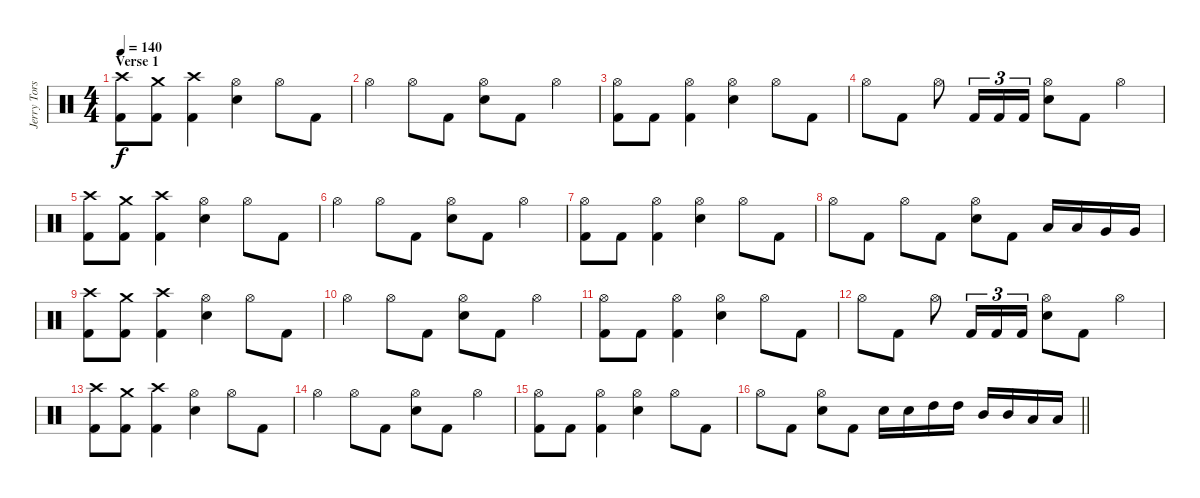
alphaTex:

\track ("Jerry Torstensson" "Jerry Tors") {instrument percussion}
\staff {score}
\articulation defaults
\ts (4 4)
\section ("" "Verse 1")
\tempo 140
\clef neutral
\ks c
("Crash high (hit)" "Kick (hit) 2").8{dy f} ("Crash medium (hit)" "Kick (hit) 2").8 ("Crash high (hit)" "Kick (hit) 2").4 ("Hi-Hat (open)" "Snare (hit) 2").4 "Hi-Hat (open)".8 "Kick (hit) 2".8 |
"Hi-Hat (open)".4 "Hi-Hat (open)".8 "Kick (hit) 2".8 ("Hi-Hat (open)" "Snare (hit) 2").8 "Kick (hit) 2".8 "Hi-Hat (open)".4 |
("Hi-Hat (open)" "Kick (hit) 2").8 "Kick (hit) 2".8 ("Hi-Hat (open)" "Kick (hit) 2").4 ("Hi-Hat (open)" "Snare (hit) 2").4 "Hi-Hat (open)".8 "Kick (hit) 2".8 |
"Hi-Hat (open)".8 "Kick (hit) 2".8 "Hi-Hat (open)".8 "Kick (hit) 2".16{tu (3 2)} "Kick (hit) 2".16{tu (3 2)} "Kick (hit) 2".16{tu (3 2)} ("Hi-Hat (open)" "Snare (hit) 2").8 "Kick (hit) 2".8 "Hi-Hat (open)".4 |
("Crash high (hit)" "Kick (hit) 2").8 ("Crash medium (hit)" "Kick (hit) 2").8 ("Crash high (hit)" "Kick (hit) 2").4 ("Hi-Hat (open)" "Snare (hit) 2").4 "Hi-Hat (open)".8 "Kick (hit) 2".8 |
"Hi-Hat (open)".4 "Hi-Hat (open)".8 "Kick (hit) 2".8 ("Hi-Hat (open)" "Snare (hit) 2").8 "Kick (hit) 2".8 "Hi-Hat (open)".4 |
("Hi-Hat (open)" "Kick (hit) 2").8 "Kick (hit) 2".8 ("Hi-Hat (open)" "Kick (hit) 2").4 ("Hi-Hat (open)" "Snare (hit) 2").4 "Hi-Hat (open)".8 "Kick (hit) 2".8 |
"Hi-Hat (open)".8 "Kick (hit) 2".8 "Hi-Hat (open)".8 "Kick (hit) 2".8 ("Hi-Hat (open)" "Snare (hit) 2").8 "Kick (hit) 2".8 "Low Tom (hit)".16 "Low Tom (hit)".16 "Very Low Tom (hit)".16 "Very Low Tom (hit)".16 |
("Crash high (hit)" "Kick (hit) 2").8 ("Crash medium (hit)" "Kick (hit) 2").8 ("Crash high (hit)" "Kick (hit) 2").4 ("Hi-Hat (open)" "Snare (hit) 2").4 "Hi-Hat (open)".8 "Kick (hit) 2".8 |
"Hi-Hat (open)".4 "Hi-Hat (open)".8 "Kick (hit) 2".8 ("Hi-Hat (open)" "Snare (hit) 2").8 "Kick (hit) 2".8 "Hi-Hat (open)".4 |
("Hi-Hat (open)" "Kick (hit) 2").8 "Kick (hit) 2".8 ("Hi-Hat (open)" "Kick (hit) 2").4 ("Hi-Hat (open)" "Snare (hit) 2").4 "Hi-Hat (open)".8 "Kick (hit) 2".8 |
"Hi-Hat (open)".8 "Kick (hit) 2".8 "Hi-Hat (open)".8 "Kick (hit) 2".16{tu (3 2)} "Kick (hit) 2".16{tu (3 2)} "Kick (hit) 2".16{tu (3 2)} ("Hi-Hat (open)" "Snare (hit) 2").8 "Kick (hit) 2".8 "Hi-Hat (open)".4 |
("Crash high (hit)" "Kick (hit) 2").8 ("Crash medium (hit)" "Kick (hit) 2").8 ("Crash high (hit)" "Kick (hit) 2").4 ("Hi-Hat (open)" "Snare (hit) 2").4 "Hi-Hat (open)".8 "Kick (hit) 2".8 |
"Hi-Hat (open)".4 "Hi-Hat (open)".8 "Kick (hit) 2".8 ("Hi-Hat (open)" "Snare (hit) 2").8 "Kick (hit) 2".8 "Hi-Hat (open)".4 |
("Hi-Hat (open)" "Kick (hit) 2").8 "Kick (hit) 2".8 ("Hi-Hat (open)" "Kick (hit) 2").4 ("Hi-Hat (open)" "Snare (hit) 2").4 "Hi-Hat (open)".8 "Kick (hit) 2".8 |
\barLineRight lightlight "Hi-Hat (open)".8 "Kick (hit) 2".8
("Hi-Hat (open)" "Snare (hit) 2").8 "Kick (hit) 2".8 "Snare (hit) 2".16 "Snare (hit) 2".16 "High Tom (hit)".16 "High Tom (hit)".16 "Mid Tom (hit)".16 "Mid Tom (hit)".16 "Low Tom (hit)".16 "Low Tom (hit)".16
